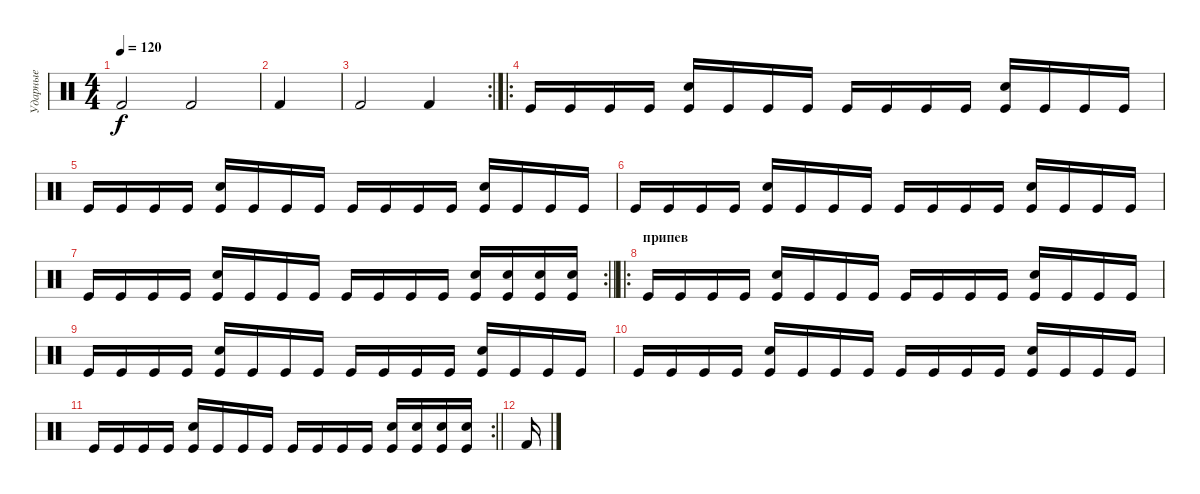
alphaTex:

\track ("Ударные" "Ударные") {instrument percussion}
\staff {score}
\articulation defaults
\ts (4 4)
\tempo 120
\clef neutral
\ks c "Kick (hit) 2".2{dy f} "Kick (hit) 2".2
|
"Kick (hit) 2".4 |
\rc 2 "Kick (hit) 2".2 "Kick (hit) 2".4
|
\ro "Kick (hit)".16 "Kick (hit)".16 "Kick (hit)".16 "Kick (hit)".16
("Kick (hit)" "Snare (hit) 2").16 "Kick (hit)".16 "Kick (hit)".16 "Kick (hit)".16 "Kick (hit)".16 "Kick (hit)".16 "Kick (hit)".16 "Kick (hit)".16 ("Kick (hit)" "Snare (hit) 2").16 "Kick (hit)".16 "Kick (hit)".16 "Kick (hit)".16 |
"Kick (hit)".16 "Kick (hit)".16 "Kick (hit)".16 "Kick (hit)".16 ("Kick (hit)" "Snare (hit) 2").16 "Kick (hit)".16 "Kick (hit)".16 "Kick (hit)".16 "Kick (hit)".16 "Kick (hit)".16 "Kick (hit)".16 "Kick (hit)".16 ("Kick (hit)" "Snare (hit) 2").16 "Kick (hit)".16 "Kick (hit)".16 "Kick (hit)".16 |
"Kick (hit)".16 "Kick (hit)".16 "Kick (hit)".16 "Kick (hit)".16 ("Kick (hit)" "Snare (hit) 2").16 "Kick (hit)".16 "Kick (hit)".16 "Kick (hit)".16 "Kick (hit)".16 "Kick (hit)".16 "Kick (hit)".16 "Kick (hit)".16 ("Kick (hit)" "Snare (hit) 2").16 "Kick (hit)".16 "Kick (hit)".16 "Kick (hit)".16 |
\rc 2
\barLineRight lightlight "Kick (hit)".16 "Kick (hit)".16 "Kick (hit)".16 "Kick (hit)".16
("Kick (hit)" "Snare (hit) 2").16 "Kick (hit)".16 "Kick (hit)".16 "Kick (hit)".16 "Kick (hit)".16 "Kick (hit)".16 "Kick (hit)".16 "Kick (hit)".16 ("Kick (hit)" "Snare (hit) 2").16 ("Kick (hit)" "Snare (hit) 2").16 ("Kick (hit)" "Snare (hit) 2").16 ("Kick (hit)" "Snare (hit) 2").16 |
\ro
\section ("" "припев")
"Kick (hit)".16 "Kick (hit)".16 "Kick (hit)".16 "Kick (hit)".16 ("Kick (hit)" "Snare (hit) 2").16 "Kick (hit)".16 "Kick (hit)".16 "Kick (hit)".16 "Kick (hit)".16 "Kick (hit)".16 "Kick (hit)".16 "Kick (hit)".16 ("Kick (hit)" "Snare (hit) 2").16 "Kick (hit)".16 "Kick (hit)".16 "Kick (hit)".16 |
"Kick (hit)".16 "Kick (hit)".16 "Kick (hit)".16 "Kick (hit)".16 ("Kick (hit)" "Snare (hit) 2").16 "Kick (hit)".16 "Kick (hit)".16 "Kick (hit)".16 "Kick (hit)".16 "Kick (hit)".16 "Kick (hit)".16 "Kick (hit)".16 ("Kick (hit)" "Snare (hit) 2").16 "Kick (hit)".16 "Kick (hit)".16 "Kick (hit)".16 |
"Kick (hit)".16 "Kick (hit)".16 "Kick (hit)".16 "Kick (hit)".16 ("Kick (hit)" "Snare (hit) 2").16 "Kick (hit)".16 "Kick (hit)".16 "Kick (hit)".16 "Kick (hit)".16 "Kick (hit)".16 "Kick (hit)".16 "Kick (hit)".16 ("Kick (hit)" "Snare (hit) 2").16 "Kick (hit)".16 "Kick (hit)".16 "Kick (hit)".16 |
\rc 2
\barLineRight lightlight "Kick (hit)".16 "Kick (hit)".16 "Kick (hit)".16 "Kick (hit)".16
("Kick (hit)" "Snare (hit) 2").16 "Kick (hit)".16 "Kick (hit)".16 "Kick (hit)".16 "Kick (hit)".16 "Kick (hit)".16 "Kick (hit)".16 "Kick (hit)".16 ("Kick (hit)" "Snare (hit) 2").16 ("Kick (hit)" "Snare (hit) 2").16 ("Kick (hit)" "Snare (hit) 2").16 ("Kick (hit)" "Snare (hit) 2").16 |
"Kick (hit) 2".16
